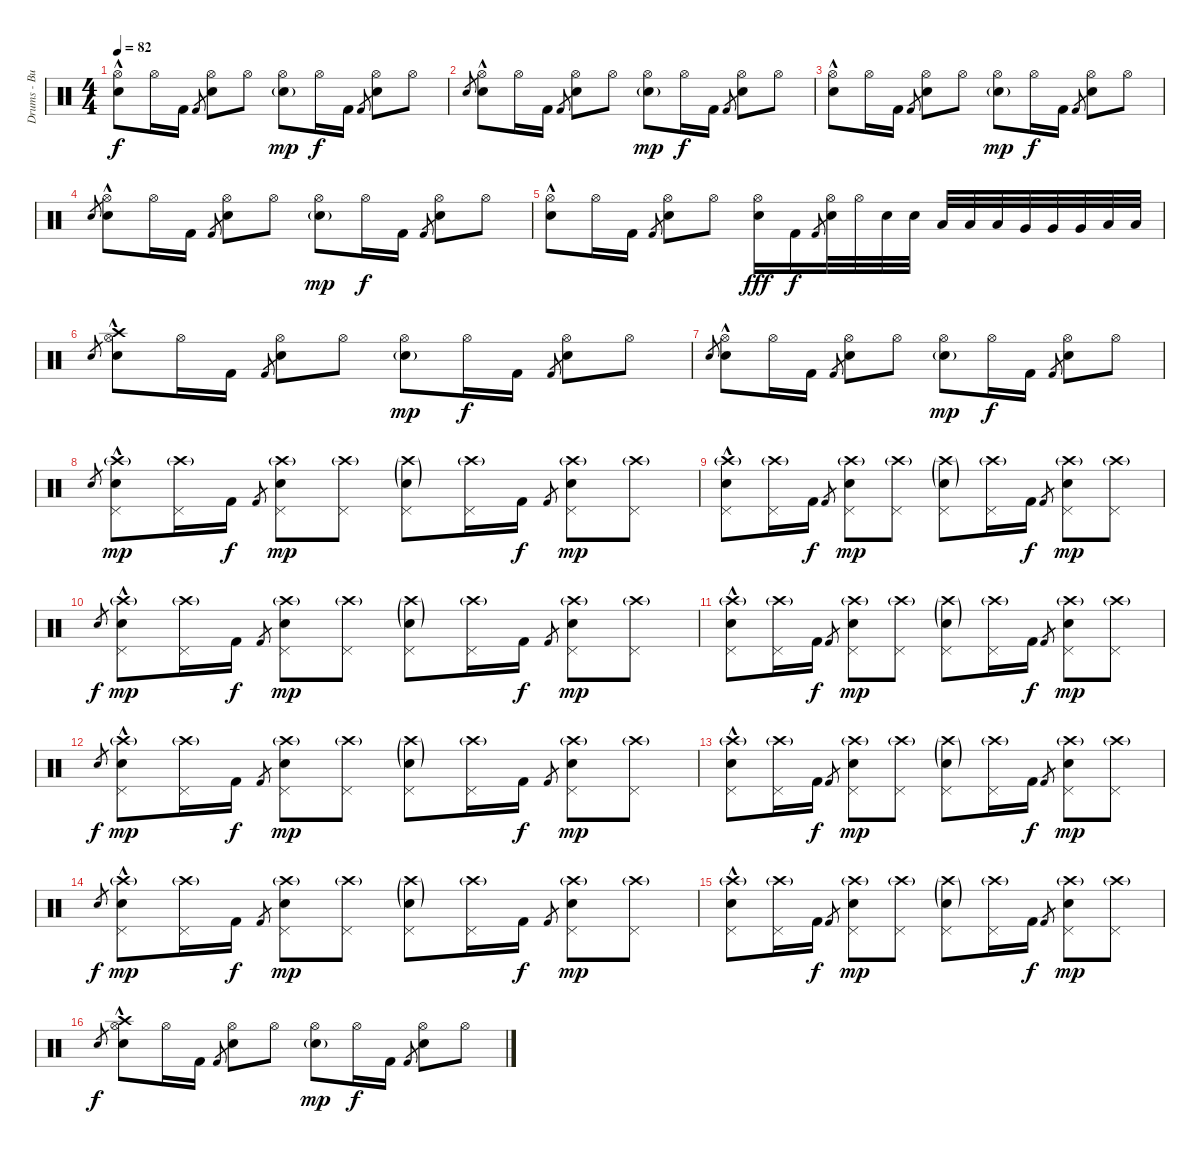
\track ("Drums - Buddy" "Drums - Bu") {instrument percussion}
\staff {score}
\articulation defaults
\ts (4 4)
\tempo 82
\clef neutral
\ks c
("Electric Snare (hit)" "Hi-Hat (open)"{hac}).8{dy f} "Hi-Hat (open)".16 "Kick (hit) 2".16 "Kick (hit) 2".8{gr} ("Electric Snare (hit)" "Hi-Hat (open)").8 "Hi-Hat (open)".8 ("Electric Snare (hit)"{g} "Hi-Hat (open)").8{dy mp} "Hi-Hat (open)".16{dy f} "Kick (hit) 2".16 "Kick (hit) 2".8{gr} ("Electric Snare (hit)" "Hi-Hat (open)").8 "Hi-Hat (open)".8 |
"Electric Snare (hit)".8{gr} ("Electric Snare (hit)" "Hi-Hat (open)"{hac}).8 "Hi-Hat (open)".16 "Kick (hit) 2".16 "Kick (hit) 2".8{gr} ("Electric Snare (hit)" "Hi-Hat (open)").8 "Hi-Hat (open)".8 ("Electric Snare (hit)"{g} "Hi-Hat (open)").8{dy mp} "Hi-Hat (open)".16{dy f} "Kick (hit) 2".16 "Kick (hit) 2".8{gr} ("Electric Snare (hit)" "Hi-Hat (open)").8 "Hi-Hat (open)".8 |
("Electric Snare (hit)" "Hi-Hat (open)"{hac}).8 "Hi-Hat (open)".16 "Kick (hit) 2".16 "Kick (hit) 2".8{gr} ("Electric Snare (hit)" "Hi-Hat (open)").8 "Hi-Hat (open)".8 ("Electric Snare (hit)"{g} "Hi-Hat (open)").8{dy mp} "Hi-Hat (open)".16{dy f} "Kick (hit) 2".16 "Kick (hit) 2".8{gr} ("Electric Snare (hit)" "Hi-Hat (open)").8 "Hi-Hat (open)".8 |
"Electric Snare (hit)".8{gr} ("Electric Snare (hit)" "Hi-Hat (open)"{hac}).8 "Hi-Hat (open)".16 "Kick (hit) 2".16 "Kick (hit) 2".8{gr} ("Electric Snare (hit)" "Hi-Hat (open)").8 "Hi-Hat (open)".8 ("Electric Snare (hit)"{g} "Hi-Hat (open)").8{dy mp} "Hi-Hat (open)".16{dy f} "Kick (hit) 2".16 "Kick (hit) 2".8{gr} ("Electric Snare (hit)" "Hi-Hat (open)").8 "Hi-Hat (open)".8 |
("Electric Snare (hit)" "Hi-Hat (open)"{hac}).8 "Hi-Hat (open)".16 "Kick (hit) 2".16 "Kick (hit) 2".8{gr} ("Electric Snare (hit)" "Hi-Hat (open)").8 "Hi-Hat (open)".8 ("Electric Snare (hit)" "Hi-Hat (open)").16{dy fff} "Kick (hit) 2".16{dy f} "Kick (hit) 2".8{gr} ("Electric Snare (hit)" "Hi-Hat (open)").32 "Hi-Hat (open)".32 "Electric Snare (hit)".32 "Electric Snare (hit)".32 "Low Floor Tom (hit)".32 "Low Floor Tom (hit)".32 "Low Floor Tom (hit)".32 "Very Low Tom (hit)".32 "Very Low Tom (hit)".32 "Very Low Tom (hit)".32 "Low Tom (hit)".32 "Low Tom (hit)".32 |
"Electric Snare (hit)".8{gr} ("Crash high (hit)" "Electric Snare (hit)" "Hi-Hat (open)"{hac}).8 "Hi-Hat (open)".16 "Kick (hit) 2".16 "Kick (hit) 2".8{gr} ("Electric Snare (hit)" "Hi-Hat (open)").8 "Hi-Hat (open)".8 ("Electric Snare (hit)"{g} "Hi-Hat (open)").8{dy mp} "Hi-Hat (open)".16{dy f} "Kick (hit) 2".16 "Kick (hit) 2".8{gr} ("Electric Snare (hit)" "Hi-Hat (open)").8 "Hi-Hat (open)".8 |
"Electric Snare (hit)".8{gr} ("Electric Snare (hit)" "Hi-Hat (open)"{hac}).8 "Hi-Hat (open)".16 "Kick (hit) 2".16 "Kick (hit) 2".8{gr} ("Electric Snare (hit)" "Hi-Hat (open)").8 "Hi-Hat (open)".8 ("Electric Snare (hit)"{g} "Hi-Hat (open)").8{dy mp} "Hi-Hat (open)".16{dy f} "Kick (hit) 2".16 "Kick (hit) 2".8{gr} ("Electric Snare (hit)" "Hi-Hat (open)").8 "Hi-Hat (open)".8 |
"Electric Snare (hit)".8{gr} ("Crash high (hit)"{g} "Electric Snare (hit)" "Pedal Hi-Hat (hit)"{hac}).8{dy mp} ("Crash high (hit)"{g} "Pedal Hi-Hat (hit)").16 "Kick (hit) 2".16{dy f} "Kick (hit) 2".8{gr} ("Crash high (hit)"{g} "Electric Snare (hit)" "Pedal Hi-Hat (hit)").8{dy mp} ("Crash high (hit)"{g} "Pedal Hi-Hat (hit)").8 ("Crash high (hit)"{g} "Electric Snare (hit)"{g} "Pedal Hi-Hat (hit)").8 ("Crash high (hit)"{g} "Pedal Hi-Hat (hit)").16 "Kick (hit) 2".16{dy f} "Kick (hit) 2".8{gr} ("Crash high (hit)"{g} "Electric Snare (hit)" "Pedal Hi-Hat (hit)").8{dy mp} ("Crash high (hit)"{g} "Pedal Hi-Hat (hit)").8 |
("Crash high (hit)"{g} "Electric Snare (hit)" "Pedal Hi-Hat (hit)"{hac}).8 ("Crash high (hit)"{g} "Pedal Hi-Hat (hit)").16 "Kick (hit) 2".16{dy f} "Kick (hit) 2".8{gr} ("Crash high (hit)"{g} "Electric Snare (hit)" "Pedal Hi-Hat (hit)").8{dy mp} ("Crash high (hit)"{g} "Pedal Hi-Hat (hit)").8 ("Crash high (hit)"{g} "Electric Snare (hit)"{g} "Pedal Hi-Hat (hit)").8 ("Crash high (hit)"{g} "Pedal Hi-Hat (hit)").16 "Kick (hit) 2".16{dy f} "Kick (hit) 2".8{gr} ("Crash high (hit)"{g} "Electric Snare (hit)" "Pedal Hi-Hat (hit)").8{dy mp} ("Crash high (hit)"{g} "Pedal Hi-Hat (hit)").8 |
"Electric Snare (hit)".8{gr dy f} ("Crash high (hit)"{g} "Electric Snare (hit)" "Pedal Hi-Hat (hit)"{hac}).8{dy mp} ("Crash high (hit)"{g} "Pedal Hi-Hat (hit)").16 "Kick (hit) 2".16{dy f} "Kick (hit) 2".8{gr} ("Crash high (hit)"{g} "Electric Snare (hit)" "Pedal Hi-Hat (hit)").8{dy mp} ("Crash high (hit)"{g} "Pedal Hi-Hat (hit)").8 ("Crash high (hit)"{g} "Electric Snare (hit)"{g} "Pedal Hi-Hat (hit)").8 ("Crash high (hit)"{g} "Pedal Hi-Hat (hit)").16 "Kick (hit) 2".16{dy f} "Kick (hit) 2".8{gr} ("Crash high (hit)"{g} "Electric Snare (hit)" "Pedal Hi-Hat (hit)").8{dy mp} ("Crash high (hit)"{g} "Pedal Hi-Hat (hit)").8 |
("Crash high (hit)"{g} "Electric Snare (hit)" "Pedal Hi-Hat (hit)"{hac}).8 ("Crash high (hit)"{g} "Pedal Hi-Hat (hit)").16 "Kick (hit) 2".16{dy f} "Kick (hit) 2".8{gr} ("Crash high (hit)"{g} "Electric Snare (hit)" "Pedal Hi-Hat (hit)").8{dy mp} ("Crash high (hit)"{g} "Pedal Hi-Hat (hit)").8 ("Crash high (hit)"{g} "Electric Snare (hit)"{g} "Pedal Hi-Hat (hit)").8 ("Crash high (hit)"{g} "Pedal Hi-Hat (hit)").16 "Kick (hit) 2".16{dy f} "Kick (hit) 2".8{gr} ("Crash high (hit)"{g} "Electric Snare (hit)" "Pedal Hi-Hat (hit)").8{dy mp} ("Crash high (hit)"{g} "Pedal Hi-Hat (hit)").8 |
"Electric Snare (hit)".8{gr dy f} ("Crash high (hit)"{g} "Electric Snare (hit)" "Pedal Hi-Hat (hit)"{hac}).8{dy mp} ("Crash high (hit)"{g} "Pedal Hi-Hat (hit)").16 "Kick (hit) 2".16{dy f} "Kick (hit) 2".8{gr} ("Crash high (hit)"{g} "Electric Snare (hit)" "Pedal Hi-Hat (hit)").8{dy mp} ("Crash high (hit)"{g} "Pedal Hi-Hat (hit)").8 ("Crash high (hit)"{g} "Electric Snare (hit)"{g} "Pedal Hi-Hat (hit)").8 ("Crash high (hit)"{g} "Pedal Hi-Hat (hit)").16 "Kick (hit) 2".16{dy f} "Kick (hit) 2".8{gr} ("Crash high (hit)"{g} "Electric Snare (hit)" "Pedal Hi-Hat (hit)").8{dy mp} ("Crash high (hit)"{g} "Pedal Hi-Hat (hit)").8 |
("Crash high (hit)"{g} "Electric Snare (hit)" "Pedal Hi-Hat (hit)"{hac}).8 ("Crash high (hit)"{g} "Pedal Hi-Hat (hit)").16 "Kick (hit) 2".16{dy f} "Kick (hit) 2".8{gr} ("Crash high (hit)"{g} "Electric Snare (hit)" "Pedal Hi-Hat (hit)").8{dy mp} ("Crash high (hit)"{g} "Pedal Hi-Hat (hit)").8 ("Crash high (hit)"{g} "Electric Snare (hit)"{g} "Pedal Hi-Hat (hit)").8 ("Crash high (hit)"{g} "Pedal Hi-Hat (hit)").16 "Kick (hit) 2".16{dy f} "Kick (hit) 2".8{gr} ("Crash high (hit)"{g} "Electric Snare (hit)" "Pedal Hi-Hat (hit)").8{dy mp} ("Crash high (hit)"{g} "Pedal Hi-Hat (hit)").8 |
"Electric Snare (hit)".8{gr dy f} ("Crash high (hit)"{g} "Electric Snare (hit)" "Pedal Hi-Hat (hit)"{hac}).8{dy mp} ("Crash high (hit)"{g} "Pedal Hi-Hat (hit)").16 "Kick (hit) 2".16{dy f} "Kick (hit) 2".8{gr} ("Crash high (hit)"{g} "Electric Snare (hit)" "Pedal Hi-Hat (hit)").8{dy mp} ("Crash high (hit)"{g} "Pedal Hi-Hat (hit)").8 ("Crash high (hit)"{g} "Electric Snare (hit)"{g} "Pedal Hi-Hat (hit)").8 ("Crash high (hit)"{g} "Pedal Hi-Hat (hit)").16 "Kick (hit) 2".16{dy f} "Kick (hit) 2".8{gr} ("Crash high (hit)"{g} "Electric Snare (hit)" "Pedal Hi-Hat (hit)").8{dy mp} ("Crash high (hit)"{g} "Pedal Hi-Hat (hit)").8 |
("Crash high (hit)"{g} "Electric Snare (hit)" "Pedal Hi-Hat (hit)"{hac}).8 ("Crash high (hit)"{g} "Pedal Hi-Hat (hit)").16 "Kick (hit) 2".16{dy f} "Kick (hit) 2".8{gr} ("Crash high (hit)"{g} "Electric Snare (hit)" "Pedal Hi-Hat (hit)").8{dy mp} ("Crash high (hit)"{g} "Pedal Hi-Hat (hit)").8 ("Crash high (hit)"{g} "Electric Snare (hit)"{g} "Pedal Hi-Hat (hit)").8 ("Crash high (hit)"{g} "Pedal Hi-Hat (hit)").16 "Kick (hit) 2".16{dy f} "Kick (hit) 2".8{gr} ("Crash high (hit)"{g} "Electric Snare (hit)" "Pedal Hi-Hat (hit)").8{dy mp} ("Crash high (hit)"{g} "Pedal Hi-Hat (hit)").8 |
"Electric Snare (hit)".8{gr dy f} ("Crash high (hit)" "Electric Snare (hit)" "Hi-Hat (open)"{hac}).8 "Hi-Hat (open)".16 "Kick (hit) 2".16 "Kick (hit) 2".8{gr} ("Electric Snare (hit)" "Hi-Hat (open)").8 "Hi-Hat (open)".8 ("Electric Snare (hit)"{g} "Hi-Hat (open)").8{dy mp} "Hi-Hat (open)".16{dy f} "Kick (hit) 2".16 "Kick (hit) 2".8{gr} ("Electric Snare (hit)" "Hi-Hat (open)").8 "Hi-Hat (open)".8
